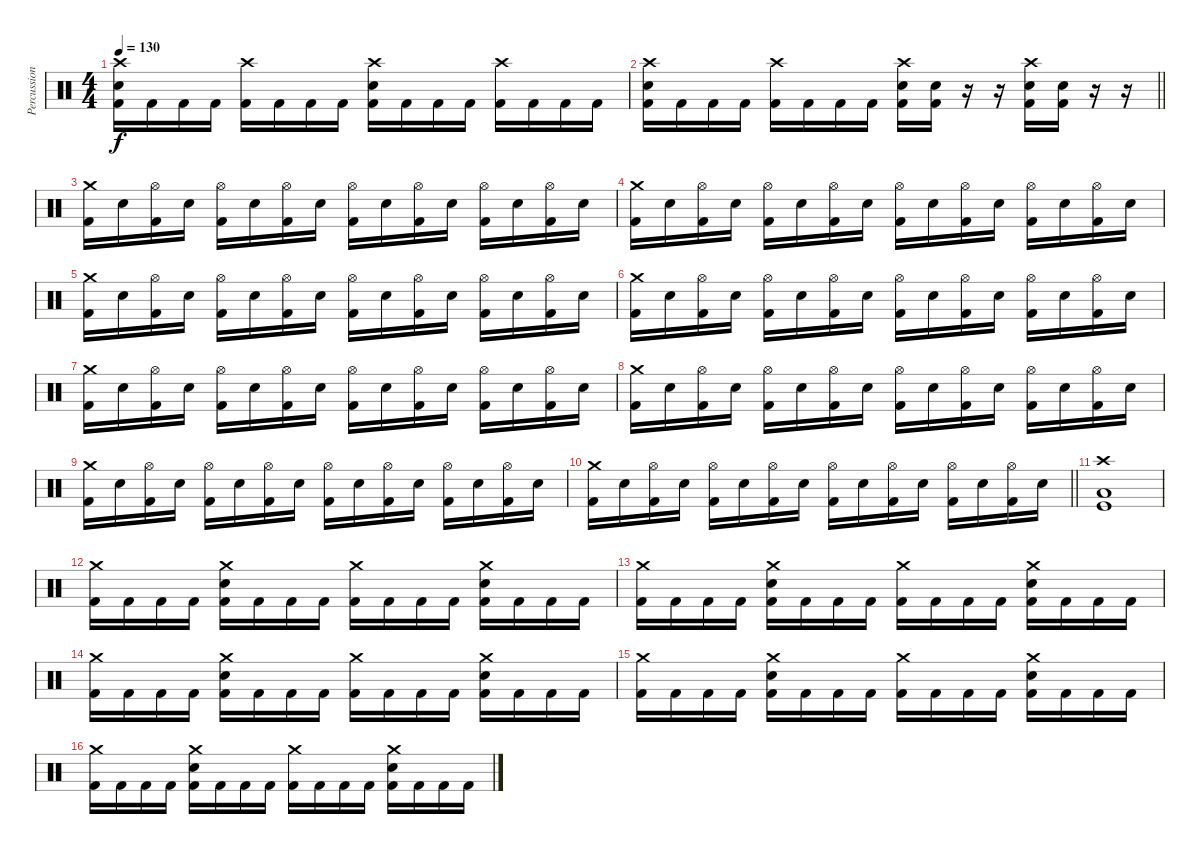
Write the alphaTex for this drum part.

\track ("Percussion" "Percussion") {instrument percussion}
\staff {score}
\articulation defaults
\ts (4 4)
\tempo 130
\clef neutral
\ks c
("Crash high (hit)" "Snare (hit) 2" "Kick (hit) 2").16{dy f} "Kick (hit) 2".16 "Kick (hit) 2".16 "Kick (hit) 2".16 ("Crash high (hit)" "Kick (hit) 2").16 "Kick (hit) 2".16 "Kick (hit) 2".16 "Kick (hit) 2".16 ("Crash high (hit)" "Snare (hit) 2" "Kick (hit) 2").16 "Kick (hit) 2".16 "Kick (hit) 2".16 "Kick (hit) 2".16 ("Crash high (hit)" "Kick (hit) 2").16 "Kick (hit) 2".16 "Kick (hit) 2".16 "Kick (hit) 2".16 |
\barLineRight lightlight
("Crash high (hit)" "Snare (hit) 2" "Kick (hit) 2").16 "Kick (hit) 2".16 "Kick (hit) 2".16 "Kick (hit) 2".16 ("Crash high (hit)" "Kick (hit) 2").16 "Kick (hit) 2".16 "Kick (hit) 2".16 "Kick (hit) 2".16 ("Crash high (hit)" "Snare (hit) 2" "Kick (hit) 2").16 ("Snare (hit) 2" "Kick (hit) 2").16 r.16 r.16 ("Crash high (hit)" "Snare (hit) 2" "Kick (hit) 2").16 ("Snare (hit) 2" "Kick (hit) 2").16 r.16 r.16 |
\section ("" "")
("Crash medium (hit)" "Kick (hit) 2").16 "Snare (hit) 2".16 ("Hi-Hat (open)" "Kick (hit) 2").16 "Snare (hit) 2".16 ("Hi-Hat (open)" "Kick (hit) 2").16 "Snare (hit) 2".16 ("Hi-Hat (open)" "Kick (hit) 2").16 "Snare (hit) 2".16 ("Hi-Hat (open)" "Kick (hit) 2").16 "Snare (hit) 2".16 ("Hi-Hat (open)" "Kick (hit) 2").16 "Snare (hit) 2".16 ("Hi-Hat (open)" "Kick (hit) 2").16 "Snare (hit) 2".16 ("Hi-Hat (open)" "Kick (hit) 2").16 "Snare (hit) 2".16 |
("Crash medium (hit)" "Kick (hit) 2").16 "Snare (hit) 2".16 ("Hi-Hat (open)" "Kick (hit) 2").16 "Snare (hit) 2".16 ("Hi-Hat (open)" "Kick (hit) 2").16 "Snare (hit) 2".16 ("Hi-Hat (open)" "Kick (hit) 2").16 "Snare (hit) 2".16 ("Hi-Hat (open)" "Kick (hit) 2").16 "Snare (hit) 2".16 ("Hi-Hat (open)" "Kick (hit) 2").16 "Snare (hit) 2".16 ("Hi-Hat (open)" "Kick (hit) 2").16 "Snare (hit) 2".16 ("Hi-Hat (open)" "Kick (hit) 2").16 "Snare (hit) 2".16 |
("Crash medium (hit)" "Kick (hit) 2").16 "Snare (hit) 2".16 ("Hi-Hat (open)" "Kick (hit) 2").16 "Snare (hit) 2".16 ("Hi-Hat (open)" "Kick (hit) 2").16 "Snare (hit) 2".16 ("Hi-Hat (open)" "Kick (hit) 2").16 "Snare (hit) 2".16 ("Hi-Hat (open)" "Kick (hit) 2").16 "Snare (hit) 2".16 ("Hi-Hat (open)" "Kick (hit) 2").16 "Snare (hit) 2".16 ("Hi-Hat (open)" "Kick (hit) 2").16 "Snare (hit) 2".16 ("Hi-Hat (open)" "Kick (hit) 2").16 "Snare (hit) 2".16 |
("Crash medium (hit)" "Kick (hit) 2").16 "Snare (hit) 2".16 ("Hi-Hat (open)" "Kick (hit) 2").16 "Snare (hit) 2".16 ("Hi-Hat (open)" "Kick (hit) 2").16 "Snare (hit) 2".16 ("Hi-Hat (open)" "Kick (hit) 2").16 "Snare (hit) 2".16 ("Hi-Hat (open)" "Kick (hit) 2").16 "Snare (hit) 2".16 ("Hi-Hat (open)" "Kick (hit) 2").16 "Snare (hit) 2".16 ("Hi-Hat (open)" "Kick (hit) 2").16 "Snare (hit) 2".16 ("Hi-Hat (open)" "Kick (hit) 2").16 "Snare (hit) 2".16 |
("Crash medium (hit)" "Kick (hit) 2").16 "Snare (hit) 2".16 ("Hi-Hat (open)" "Kick (hit) 2").16 "Snare (hit) 2".16 ("Hi-Hat (open)" "Kick (hit) 2").16 "Snare (hit) 2".16 ("Hi-Hat (open)" "Kick (hit) 2").16 "Snare (hit) 2".16 ("Hi-Hat (open)" "Kick (hit) 2").16 "Snare (hit) 2".16 ("Hi-Hat (open)" "Kick (hit) 2").16 "Snare (hit) 2".16 ("Hi-Hat (open)" "Kick (hit) 2").16 "Snare (hit) 2".16 ("Hi-Hat (open)" "Kick (hit) 2").16 "Snare (hit) 2".16 |
("Crash medium (hit)" "Kick (hit) 2").16 "Snare (hit) 2".16 ("Hi-Hat (open)" "Kick (hit) 2").16 "Snare (hit) 2".16 ("Hi-Hat (open)" "Kick (hit) 2").16 "Snare (hit) 2".16 ("Hi-Hat (open)" "Kick (hit) 2").16 "Snare (hit) 2".16 ("Hi-Hat (open)" "Kick (hit) 2").16 "Snare (hit) 2".16 ("Hi-Hat (open)" "Kick (hit) 2").16 "Snare (hit) 2".16 ("Hi-Hat (open)" "Kick (hit) 2").16 "Snare (hit) 2".16 ("Hi-Hat (open)" "Kick (hit) 2").16 "Snare (hit) 2".16 |
("Crash medium (hit)" "Kick (hit) 2").16 "Snare (hit) 2".16 ("Hi-Hat (open)" "Kick (hit) 2").16 "Snare (hit) 2".16 ("Hi-Hat (open)" "Kick (hit) 2").16 "Snare (hit) 2".16 ("Hi-Hat (open)" "Kick (hit) 2").16 "Snare (hit) 2".16 ("Hi-Hat (open)" "Kick (hit) 2").16 "Snare (hit) 2".16 ("Hi-Hat (open)" "Kick (hit) 2").16 "Snare (hit) 2".16 ("Hi-Hat (open)" "Kick (hit) 2").16 "Snare (hit) 2".16 ("Hi-Hat (open)" "Kick (hit) 2").16 "Snare (hit) 2".16 |
\barLineRight lightlight
("Crash medium (hit)" "Kick (hit) 2").16 "Snare (hit) 2".16 ("Hi-Hat (open)" "Kick (hit) 2").16 "Snare (hit) 2".16 ("Hi-Hat (open)" "Kick (hit) 2").16 "Snare (hit) 2".16 ("Hi-Hat (open)" "Kick (hit) 2").16 "Snare (hit) 2".16 ("Hi-Hat (open)" "Kick (hit) 2").16 "Snare (hit) 2".16 ("Hi-Hat (open)" "Kick (hit) 2").16 "Snare (hit) 2".16 ("Hi-Hat (open)" "Kick (hit) 2").16 "Snare (hit) 2".16 ("Hi-Hat (open)" "Kick (hit) 2").16 "Snare (hit) 2".16 |
\section ("" "")
("Crash high (hit)" "Low Tom (hit)" "Kick (hit)").1 |
("Crash medium (hit)" "Kick (hit) 2").16 "Kick (hit) 2".16 "Kick (hit) 2".16 "Kick (hit) 2".16 ("Crash medium (hit)" "Snare (hit) 2" "Kick (hit) 2").16 "Kick (hit) 2".16 "Kick (hit) 2".16 "Kick (hit) 2".16 ("Crash medium (hit)" "Kick (hit) 2").16 "Kick (hit) 2".16 "Kick (hit) 2".16 "Kick (hit) 2".16 ("Crash medium (hit)" "Snare (hit) 2" "Kick (hit) 2").16 "Kick (hit) 2".16 "Kick (hit) 2".16 "Kick (hit) 2".16 |
("Crash medium (hit)" "Kick (hit) 2").16 "Kick (hit) 2".16 "Kick (hit) 2".16 "Kick (hit) 2".16 ("Crash medium (hit)" "Snare (hit) 2" "Kick (hit) 2").16 "Kick (hit) 2".16 "Kick (hit) 2".16 "Kick (hit) 2".16 ("Crash medium (hit)" "Kick (hit) 2").16 "Kick (hit) 2".16 "Kick (hit) 2".16 "Kick (hit) 2".16 ("Crash medium (hit)" "Snare (hit) 2" "Kick (hit) 2").16 "Kick (hit) 2".16 "Kick (hit) 2".16 "Kick (hit) 2".16 |
("Crash medium (hit)" "Kick (hit) 2").16 "Kick (hit) 2".16 "Kick (hit) 2".16 "Kick (hit) 2".16 ("Crash medium (hit)" "Snare (hit) 2" "Kick (hit) 2").16 "Kick (hit) 2".16 "Kick (hit) 2".16 "Kick (hit) 2".16 ("Crash medium (hit)" "Kick (hit) 2").16 "Kick (hit) 2".16 "Kick (hit) 2".16 "Kick (hit) 2".16 ("Crash medium (hit)" "Snare (hit) 2" "Kick (hit) 2").16 "Kick (hit) 2".16 "Kick (hit) 2".16 "Kick (hit) 2".16 |
("Crash medium (hit)" "Kick (hit) 2").16 "Kick (hit) 2".16 "Kick (hit) 2".16 "Kick (hit) 2".16 ("Crash medium (hit)" "Snare (hit) 2" "Kick (hit) 2").16 "Kick (hit) 2".16 "Kick (hit) 2".16 "Kick (hit) 2".16 ("Crash medium (hit)" "Kick (hit) 2").16 "Kick (hit) 2".16 "Kick (hit) 2".16 "Kick (hit) 2".16 ("Crash medium (hit)" "Snare (hit) 2" "Kick (hit) 2").16 "Kick (hit) 2".16 "Kick (hit) 2".16 "Kick (hit) 2".16 |
("Crash medium (hit)" "Kick (hit) 2").16 "Kick (hit) 2".16 "Kick (hit) 2".16 "Kick (hit) 2".16 ("Crash medium (hit)" "Snare (hit) 2" "Kick (hit) 2").16 "Kick (hit) 2".16 "Kick (hit) 2".16 "Kick (hit) 2".16 ("Crash medium (hit)" "Kick (hit) 2").16 "Kick (hit) 2".16 "Kick (hit) 2".16 "Kick (hit) 2".16 ("Crash medium (hit)" "Snare (hit) 2" "Kick (hit) 2").16 "Kick (hit) 2".16 "Kick (hit) 2".16 "Kick (hit) 2".16
